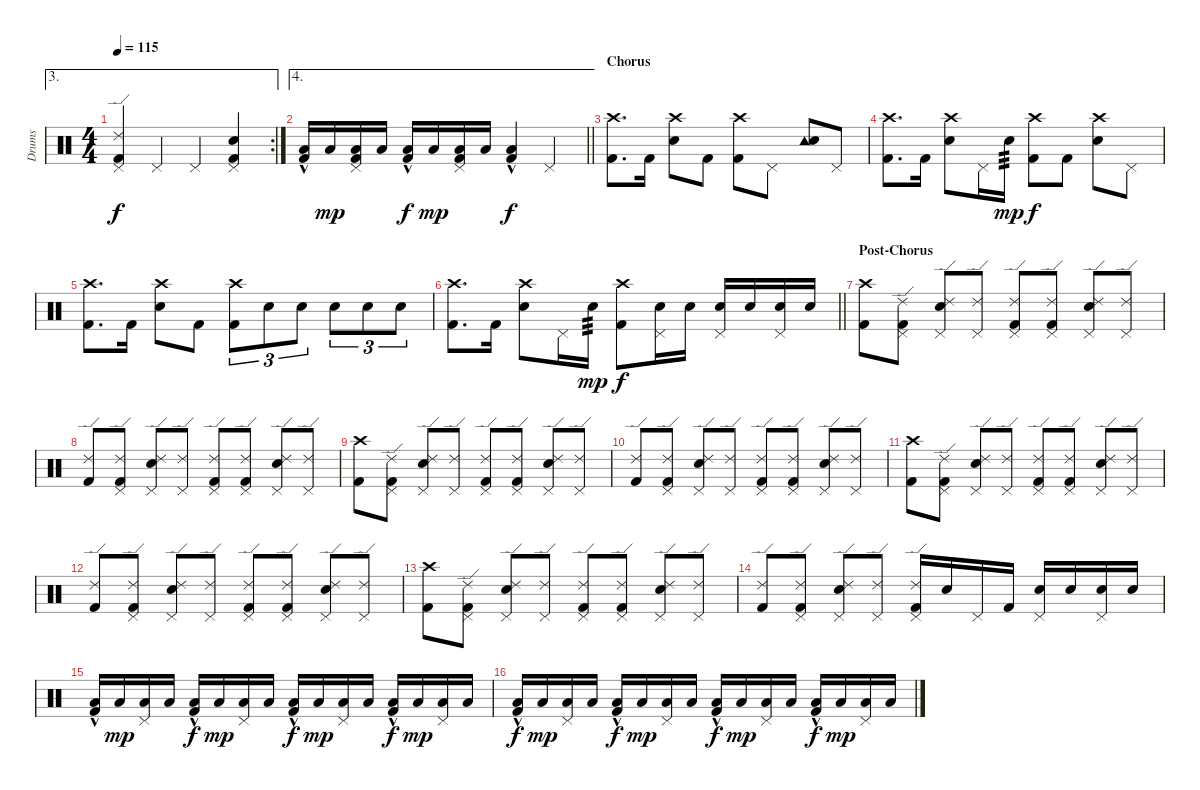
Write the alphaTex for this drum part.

\track ("Drums" "Drums") {instrument percussion}
\staff {score}
\articulation defaults
\ae 3
\rc 2
\ts (4 4)
\tempo 115
\clef neutral
\ks c
("Ride (edge) 2" "Pedal Hi-Hat (hit)" "Kick (hit) 2").4{dy f} "Pedal Hi-Hat (hit)".4 "Pedal Hi-Hat (hit)".4 ("Pedal Hi-Hat (hit)" "Snare (hit) 2" "Kick (hit) 2").4 |
\ae 4
\barLineRight lightlight
("Low Floor Tom (hit)"{hac} "Kick (hit) 2").16{volume 9} "Low Floor Tom (hit)".16{dy mp volume 15} ("Pedal Hi-Hat (hit)" "Low Floor Tom (hit)" "Kick (hit) 2").16 "Low Floor Tom (hit)".16 ("Low Floor Tom (hit)"{hac} "Kick (hit) 2").16{dy f} "Low Floor Tom (hit)".16{dy mp} ("Pedal Hi-Hat (hit)" "Low Floor Tom (hit)" "Kick (hit) 2").16 "Low Floor Tom (hit)".16 ("Low Floor Tom (hit)"{hac} "Kick (hit) 2").4{dy f} "Pedal Hi-Hat (hit)".4 |
\section ("" "Chorus")
("Crash high (hit)" "Kick (hit) 2").8{d} "Kick (hit) 2".16 ("Crash high (hit)" "Snare (hit) 2").8 "Kick (hit) 2".8 ("Crash high (hit)" "Kick (hit) 2").8 "Pedal Hi-Hat (hit)".8 ("Tambourine (hit)" "Snare (hit) 2").8 "Pedal Hi-Hat (hit)".8 |
("Crash high (hit)" "Kick (hit) 2").8{d} "Kick (hit) 2".16 ("Crash high (hit)" "Snare (hit) 2").8 "Pedal Hi-Hat (hit)".16 "Snare (hit) 2".16{tp 3 dy mp} ("Crash high (hit)" "Kick (hit) 2").8{dy f} "Kick (hit) 2".8 ("Crash high (hit)" "Snare (hit) 2").8 "Pedal Hi-Hat (hit)".8 |
("Crash high (hit)" "Kick (hit) 2").8{d} "Kick (hit) 2".16 ("Crash high (hit)" "Snare (hit) 2").8 "Kick (hit) 2".8 ("Crash high (hit)" "Kick (hit) 2").8{tu (3 2)} "Snare (hit) 2".8{tu (3 2)} "Snare (hit) 2".8{tu (3 2)} "Snare (hit) 2".8{tu (3 2)} "Snare (hit) 2".8{tu (3 2)} "Snare (hit) 2".8{tu (3 2)} |
\barLineRight lightlight
("Crash high (hit)" "Kick (hit) 2").8{d} "Kick (hit) 2".16 ("Crash high (hit)" "Snare (hit) 2").8 "Pedal Hi-Hat (hit)".16 "Snare (hit) 2".16{tp 3 dy mp} ("Crash high (hit)" "Kick (hit) 2").8{dy f} ("Pedal Hi-Hat (hit)" "Snare (hit) 2").16 "Snare (hit) 2".16 ("Pedal Hi-Hat (hit)" "Snare (hit) 2").16 "Snare (hit) 2".16 ("Pedal Hi-Hat (hit)" "Snare (hit) 2").16 "Snare (hit) 2".16 |
\section ("" "Post-Chorus")
("Crash high (hit)" "Kick (hit) 2").8 ("Pedal Hi-Hat (hit)" "Ride (edge) 2" "Kick (hit) 2").8 ("Pedal Hi-Hat (hit)" "Ride (edge) 2" "Snare (hit) 2").8 ("Pedal Hi-Hat (hit)" "Ride (edge) 2").8 ("Pedal Hi-Hat (hit)" "Ride (edge) 2" "Kick (hit) 2").8 ("Pedal Hi-Hat (hit)" "Ride (edge) 2" "Kick (hit) 2").8 ("Pedal Hi-Hat (hit)" "Ride (edge) 2" "Snare (hit) 2").8 ("Pedal Hi-Hat (hit)" "Ride (edge) 2").8 |
("Ride (edge) 2" "Kick (hit) 2").8 ("Pedal Hi-Hat (hit)" "Ride (edge) 2" "Kick (hit) 2").8 ("Pedal Hi-Hat (hit)" "Ride (edge) 2" "Snare (hit) 2").8 ("Pedal Hi-Hat (hit)" "Ride (edge) 2").8 ("Pedal Hi-Hat (hit)" "Ride (edge) 2" "Kick (hit) 2").8 ("Pedal Hi-Hat (hit)" "Ride (edge) 2" "Kick (hit) 2").8 ("Pedal Hi-Hat (hit)" "Ride (edge) 2" "Snare (hit) 2").8 ("Pedal Hi-Hat (hit)" "Ride (edge) 2").8 |
("Crash high (hit)" "Kick (hit) 2").8 ("Pedal Hi-Hat (hit)" "Ride (edge) 2" "Kick (hit) 2").8 ("Pedal Hi-Hat (hit)" "Ride (edge) 2" "Snare (hit) 2").8 ("Pedal Hi-Hat (hit)" "Ride (edge) 2").8 ("Pedal Hi-Hat (hit)" "Ride (edge) 2" "Kick (hit) 2").8 ("Pedal Hi-Hat (hit)" "Ride (edge) 2" "Kick (hit) 2").8 ("Pedal Hi-Hat (hit)" "Ride (edge) 2" "Snare (hit) 2").8 ("Pedal Hi-Hat (hit)" "Ride (edge) 2").8 |
("Ride (edge) 2" "Kick (hit) 2").8 ("Pedal Hi-Hat (hit)" "Ride (edge) 2" "Kick (hit) 2").8 ("Pedal Hi-Hat (hit)" "Ride (edge) 2" "Snare (hit) 2").8 ("Pedal Hi-Hat (hit)" "Ride (edge) 2").8 ("Pedal Hi-Hat (hit)" "Ride (edge) 2" "Kick (hit) 2").8 ("Pedal Hi-Hat (hit)" "Ride (edge) 2" "Kick (hit) 2").8 ("Pedal Hi-Hat (hit)" "Ride (edge) 2" "Snare (hit) 2").8 ("Pedal Hi-Hat (hit)" "Ride (edge) 2").8 |
("Crash high (hit)" "Kick (hit) 2").8 ("Pedal Hi-Hat (hit)" "Ride (edge) 2" "Kick (hit) 2").8 ("Pedal Hi-Hat (hit)" "Ride (edge) 2" "Snare (hit) 2").8 ("Pedal Hi-Hat (hit)" "Ride (edge) 2").8 ("Pedal Hi-Hat (hit)" "Ride (edge) 2" "Kick (hit) 2").8 ("Pedal Hi-Hat (hit)" "Ride (edge) 2" "Kick (hit) 2").8 ("Pedal Hi-Hat (hit)" "Ride (edge) 2" "Snare (hit) 2").8 ("Pedal Hi-Hat (hit)" "Ride (edge) 2").8 |
("Ride (edge) 2" "Kick (hit) 2").8 ("Pedal Hi-Hat (hit)" "Ride (edge) 2" "Kick (hit) 2").8 ("Pedal Hi-Hat (hit)" "Ride (edge) 2" "Snare (hit) 2").8 ("Pedal Hi-Hat (hit)" "Ride (edge) 2").8 ("Pedal Hi-Hat (hit)" "Ride (edge) 2" "Kick (hit) 2").8 ("Pedal Hi-Hat (hit)" "Ride (edge) 2" "Kick (hit) 2").8 ("Pedal Hi-Hat (hit)" "Ride (edge) 2" "Snare (hit) 2").8 ("Pedal Hi-Hat (hit)" "Ride (edge) 2").8 |
("Crash high (hit)" "Kick (hit) 2").8 ("Pedal Hi-Hat (hit)" "Ride (edge) 2" "Kick (hit) 2").8 ("Pedal Hi-Hat (hit)" "Ride (edge) 2" "Snare (hit) 2").8 ("Pedal Hi-Hat (hit)" "Ride (edge) 2").8 ("Pedal Hi-Hat (hit)" "Ride (edge) 2" "Kick (hit) 2").8 ("Pedal Hi-Hat (hit)" "Ride (edge) 2" "Kick (hit) 2").8 ("Pedal Hi-Hat (hit)" "Ride (edge) 2" "Snare (hit) 2").8 ("Pedal Hi-Hat (hit)" "Ride (edge) 2").8 |
("Ride (edge) 2" "Kick (hit) 2").8 ("Pedal Hi-Hat (hit)" "Ride (edge) 2" "Kick (hit) 2").8 ("Pedal Hi-Hat (hit)" "Ride (edge) 2" "Snare (hit) 2").8 ("Pedal Hi-Hat (hit)" "Ride (edge) 2").8 ("Pedal Hi-Hat (hit)" "Ride (edge) 2" "Kick (hit) 2").16 "Snare (hit) 2".16 "Pedal Hi-Hat (hit)".16 "Kick (hit) 2".16 ("Pedal Hi-Hat (hit)" "Snare (hit) 2").16 "Snare (hit) 2".16 ("Pedal Hi-Hat (hit)" "Snare (hit) 2").16 "Snare (hit) 2".16 |
("Low Floor Tom (hit)"{hac} "Kick (hit) 2").16 "Low Floor Tom (hit)".16{dy mp} ("Pedal Hi-Hat (hit)" "Low Floor Tom (hit)").16 "Low Floor Tom (hit)".16 ("Low Floor Tom (hit)"{hac} "Kick (hit) 2").16{dy f} "Low Floor Tom (hit)".16{dy mp} ("Pedal Hi-Hat (hit)" "Low Floor Tom (hit)").16 "Low Floor Tom (hit)".16 ("Low Floor Tom (hit)"{hac} "Kick (hit) 2").16{dy f} "Low Floor Tom (hit)".16{dy mp} ("Pedal Hi-Hat (hit)" "Low Floor Tom (hit)").16 "Low Floor Tom (hit)".16 ("Low Floor Tom (hit)"{hac} "Kick (hit) 2").16{dy f} "Low Floor Tom (hit)".16{dy mp} ("Pedal Hi-Hat (hit)" "Low Floor Tom (hit)").16 "Low Floor Tom (hit)".16 |
("Low Floor Tom (hit)"{hac} "Kick (hit) 2").16{dy f} "Low Floor Tom (hit)".16{dy mp} ("Pedal Hi-Hat (hit)" "Low Floor Tom (hit)").16 "Low Floor Tom (hit)".16 ("Low Floor Tom (hit)"{hac} "Kick (hit) 2").16{dy f} "Low Floor Tom (hit)".16{dy mp} ("Pedal Hi-Hat (hit)" "Low Floor Tom (hit)").16 "Low Floor Tom (hit)".16 ("Low Floor Tom (hit)"{hac} "Kick (hit) 2").16{dy f} "Low Floor Tom (hit)".16{dy mp} ("Pedal Hi-Hat (hit)" "Low Floor Tom (hit)").16 "Low Floor Tom (hit)".16 ("Low Floor Tom (hit)"{hac} "Kick (hit) 2").16{dy f} "Low Floor Tom (hit)".16{dy mp} ("Pedal Hi-Hat (hit)" "Low Floor Tom (hit)").16 "Low Floor Tom (hit)".16
